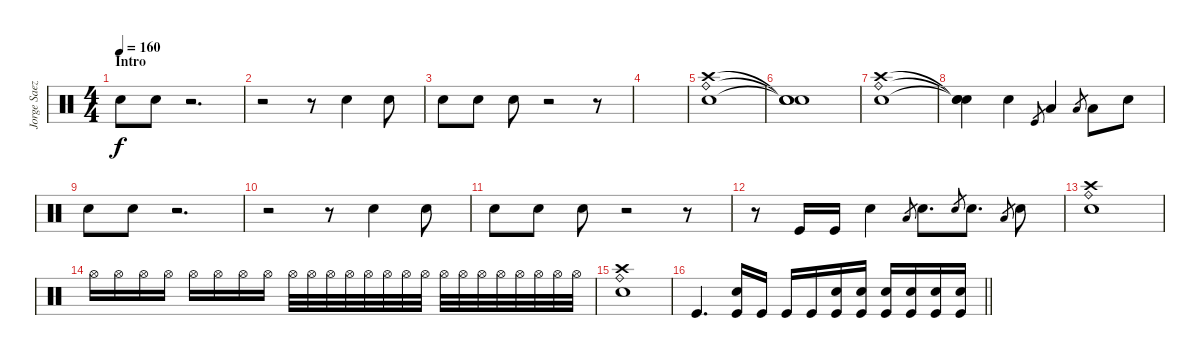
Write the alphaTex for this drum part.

\track ("Jorge Saez" "Jorge Saez") {instrument percussion}
\staff {score}
\articulation defaults
\ts (4 4)
\section ("" "Intro")
\tempo 160
\clef neutral
\ks c "Snare (hit) 2".8{dy f} "Snare (hit) 2".8
r.2{d} |
r.2 r.8 "Snare (hit) 2".4 "Snare (hit) 2".8 |
"Snare (hit) 2".8 "Snare (hit) 2".8 "Snare (hit) 2".8 r.2 r.8 |
|
("Ride (bell)" "Crash high (hit)" "Snare (hit) 2").1 |
("Snare (hit)"{t} "Snare (hit)"{t} "Snare (hit)"{t}).1 |
("Ride (bell)" "Crash high (hit)" "Snare (hit) 2").1 |
("Snare (hit)"{t} "Snare (hit)"{t} "Snare (hit)"{t}).4 "Snare (hit) 2".4 "Kick (hit)".8{gr} "Low Floor Tom (hit)".4 "Low Floor Tom (hit)".8{gr} "Low Floor Tom (hit)".8 "Snare (hit) 2".8 |
"Snare (hit) 2".8 "Snare (hit) 2".8 r.2{d} |
r.2 r.8 "Snare (hit) 2".4 "Snare (hit) 2".8 |
"Snare (hit) 2".8 "Snare (hit) 2".8 "Snare (hit) 2".8 r.2 r.8 |
r.8 "Kick (hit)".16 "Kick (hit)".16 "Snare (hit) 2".4 "Low Floor Tom (hit)".8{gr} "Electric Snare (hit)".8{d} "Electric Snare (hit)".8{gr} "Electric Snare (hit)".8{d} "Low Floor Tom (hit)".8{gr} "Snare (hit) 2".8 |
("Ride (bell)" "Crash high (hit)" "Snare (hit) 2").1 |
"Hi-Hat (open)".16{volume 7} "Hi-Hat (open)".16 "Hi-Hat (open)".16 "Hi-Hat (open)".16 "Hi-Hat (open)".16 "Hi-Hat (open)".16 "Hi-Hat (open)".16 "Hi-Hat (open)".16 "Hi-Hat (open)".32 "Hi-Hat (open)".32 "Hi-Hat (open)".32 "Hi-Hat (open)".32 "Hi-Hat (open)".32 "Hi-Hat (open)".32 "Hi-Hat (open)".32 "Hi-Hat (open)".32 "Hi-Hat (open)".32 "Hi-Hat (open)".32 "Hi-Hat (open)".32 "Hi-Hat (open)".32 "Hi-Hat (open)".32 "Hi-Hat (open)".32 "Hi-Hat (open)".32 "Hi-Hat (open)".32 |
("Ride (bell)" "Crash high (hit)" "Snare (hit) 2").1{volume 16} |
\barLineRight lightlight "Kick (hit)".4{d}
("Electric Snare (hit)" "Kick (hit)").16 "Kick (hit)".16 "Kick (hit)".16 "Kick (hit)".16 ("Electric Snare (hit)" "Kick (hit)").16 ("Electric Snare (hit)" "Kick (hit)").16 ("Electric Snare (hit)" "Kick (hit)").16 ("Electric Snare (hit)" "Kick (hit)").16 ("Electric Snare (hit)" "Kick (hit)").16 ("Electric Snare (hit)" "Kick (hit)").16
